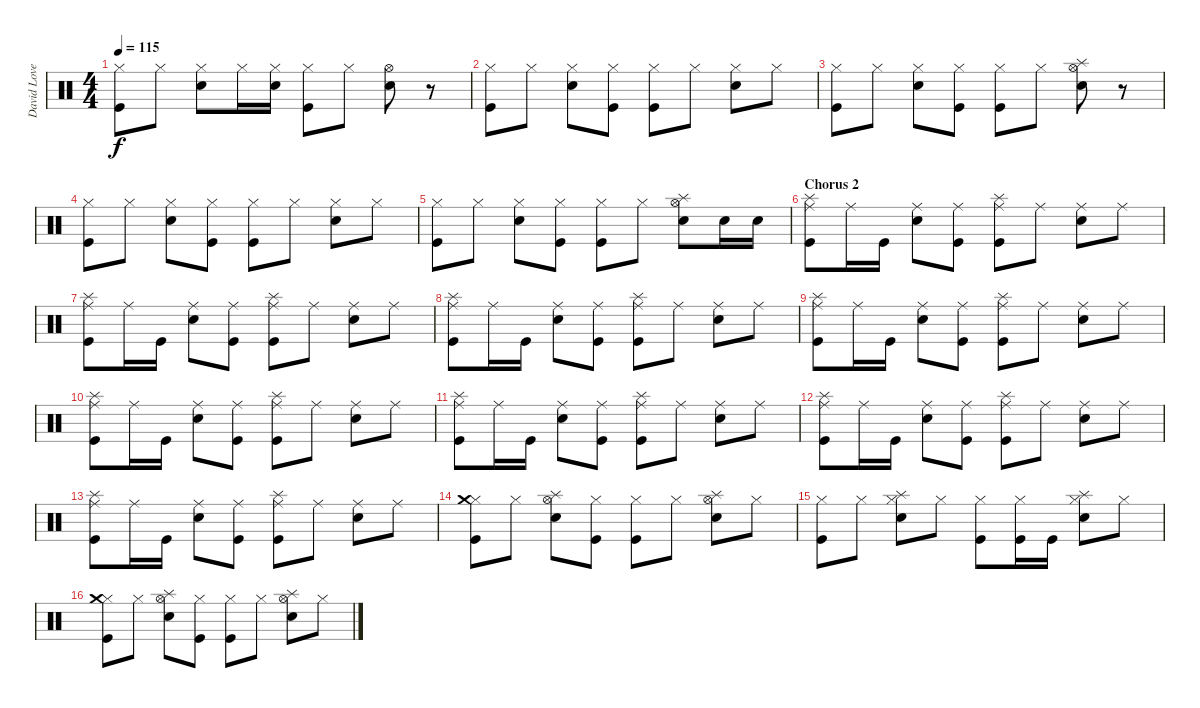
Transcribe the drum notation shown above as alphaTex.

\track ("David Lovering" "David Love") {instrument percussion}
\staff {score}
\articulation defaults
\ts (4 4)
\tempo 115
\clef neutral
\ks c
("Hi-Hat (closed)" "Kick (hit)").8{dy f} "Hi-Hat (closed)".8 ("Hi-Hat (closed)" "Snare (hit) 2").8 "Hi-Hat (closed)".16 ("Hi-Hat (closed)" "Snare (hit) 2").16 ("Hi-Hat (closed)" "Kick (hit)").8 "Hi-Hat (closed)".8 ("Hi-Hat (open)" "Snare (hit) 2").8 r.8 |
("Hi-Hat (closed)" "Kick (hit)").8 "Hi-Hat (closed)".8 ("Hi-Hat (closed)" "Snare (hit) 2").8 ("Hi-Hat (closed)" "Kick (hit)").8 ("Hi-Hat (closed)" "Kick (hit)").8 "Hi-Hat (closed)".8 ("Hi-Hat (closed)" "Snare (hit) 2").8 "Hi-Hat (closed)".8 |
("Hi-Hat (closed)" "Kick (hit)").8 "Hi-Hat (closed)".8 ("Hi-Hat (closed)" "Snare (hit) 2").8 ("Hi-Hat (closed)" "Kick (hit)").8 ("Hi-Hat (closed)" "Kick (hit)").8 "Hi-Hat (closed)".8 ("Hi-Hat (open)" "Splash (hit)" "Snare (hit) 2").8 r.8 |
("Hi-Hat (closed)" "Kick (hit)").8 "Hi-Hat (closed)".8 ("Hi-Hat (closed)" "Snare (hit) 2").8 ("Hi-Hat (closed)" "Kick (hit)").8 ("Hi-Hat (closed)" "Kick (hit)").8 "Hi-Hat (closed)".8 ("Hi-Hat (closed)" "Snare (hit) 2").8 "Hi-Hat (closed)".8 |
("Hi-Hat (closed)" "Kick (hit)").8 "Hi-Hat (closed)".8 ("Hi-Hat (closed)" "Snare (hit) 2").8 ("Hi-Hat (closed)" "Kick (hit)").8 ("Hi-Hat (closed)" "Kick (hit)").8 "Hi-Hat (closed)".8 ("Hi-Hat (open)" "Splash (hit)" "Snare (hit) 2").8 "Snare (hit) 2".16 "Snare (hit) 2".16 |
\section ("" "Chorus 2")
("Ride (middle)" "Splash (hit)" "Kick (hit)").8 "Ride (middle)".16 "Kick (hit)".16 ("Ride (middle)" "Snare (hit) 2").8 ("Ride (middle)" "Kick (hit)").8 ("Ride (middle)" "Splash (hit)" "Kick (hit)").8 "Ride (middle)".8 ("Ride (middle)" "Snare (hit) 2").8 "Ride (middle)".8 |
("Ride (middle)" "Splash (hit)" "Kick (hit)").8 "Ride (middle)".16 "Kick (hit)".16 ("Ride (middle)" "Snare (hit) 2").8 ("Ride (middle)" "Kick (hit)").8 ("Ride (middle)" "Splash (hit)" "Kick (hit)").8 "Ride (middle)".8 ("Ride (middle)" "Snare (hit) 2").8 "Ride (middle)".8 |
("Ride (middle)" "Splash (hit)" "Kick (hit)").8 "Ride (middle)".16 "Kick (hit)".16 ("Ride (middle)" "Snare (hit) 2").8 ("Ride (middle)" "Kick (hit)").8 ("Ride (middle)" "Splash (hit)" "Kick (hit)").8 "Ride (middle)".8 ("Ride (middle)" "Snare (hit) 2").8 "Ride (middle)".8 |
("Ride (middle)" "Splash (hit)" "Kick (hit)").8 "Ride (middle)".16 "Kick (hit)".16 ("Ride (middle)" "Snare (hit) 2").8 ("Ride (middle)" "Kick (hit)").8 ("Ride (middle)" "Splash (hit)" "Kick (hit)").8 "Ride (middle)".8 ("Ride (middle)" "Snare (hit) 2").8 "Ride (middle)".8 |
("Ride (middle)" "Splash (hit)" "Kick (hit)").8 "Ride (middle)".16 "Kick (hit)".16 ("Ride (middle)" "Snare (hit) 2").8 ("Ride (middle)" "Kick (hit)").8 ("Ride (middle)" "Splash (hit)" "Kick (hit)").8 "Ride (middle)".8 ("Ride (middle)" "Snare (hit) 2").8 "Ride (middle)".8 |
("Ride (middle)" "Splash (hit)" "Kick (hit)").8 "Ride (middle)".16 "Kick (hit)".16 ("Ride (middle)" "Snare (hit) 2").8 ("Ride (middle)" "Kick (hit)").8 ("Ride (middle)" "Splash (hit)" "Kick (hit)").8 "Ride (middle)".8 ("Ride (middle)" "Snare (hit) 2").8 "Ride (middle)".8 |
("Ride (middle)" "Splash (hit)" "Kick (hit)").8 "Ride (middle)".16 "Kick (hit)".16 ("Ride (middle)" "Snare (hit) 2").8 ("Ride (middle)" "Kick (hit)").8 ("Ride (middle)" "Splash (hit)" "Kick (hit)").8 "Ride (middle)".8 ("Ride (middle)" "Snare (hit) 2").8 "Ride (middle)".8 |
("Ride (middle)" "Splash (hit)" "Kick (hit)").8 "Ride (middle)".16 "Kick (hit)".16 ("Ride (middle)" "Snare (hit) 2").8 ("Ride (middle)" "Kick (hit)").8 ("Ride (middle)" "Splash (hit)" "Kick (hit)").8 "Ride (middle)".8 ("Ride (middle)" "Snare (hit) 2").8 "Ride (middle)".8 |
("Hi-Hat (closed)" "Crash medium (hit)" "Kick (hit)").8 "Hi-Hat (closed)".8 ("Hi-Hat (open)" "Splash (hit)" "Snare (hit) 2").8 ("Hi-Hat (closed)" "Kick (hit)").8 ("Hi-Hat (closed)" "Kick (hit)").8 "Hi-Hat (closed)".8 ("Hi-Hat (open)" "Splash (hit)" "Snare (hit) 2").8 "Hi-Hat (closed)".8 |
("Hi-Hat (closed)" "Kick (hit)").8 "Hi-Hat (closed)".8 ("Hi-Hat (closed)" "Splash (hit)" "Snare (hit) 2").8 "Hi-Hat (closed)".8 ("Hi-Hat (closed)" "Kick (hit)").8 ("Hi-Hat (closed)" "Kick (hit)").16 "Kick (hit)".16 ("Hi-Hat (closed)" "Splash (hit)" "Snare (hit) 2").8 "Hi-Hat (closed)".8 |
("Hi-Hat (closed)" "Crash medium (hit)" "Kick (hit)").8 "Hi-Hat (closed)".8 ("Hi-Hat (open)" "Splash (hit)" "Snare (hit) 2").8 ("Hi-Hat (closed)" "Kick (hit)").8 ("Hi-Hat (closed)" "Kick (hit)").8 "Hi-Hat (closed)".8 ("Hi-Hat (open)" "Splash (hit)" "Snare (hit) 2").8 "Hi-Hat (closed)".8
